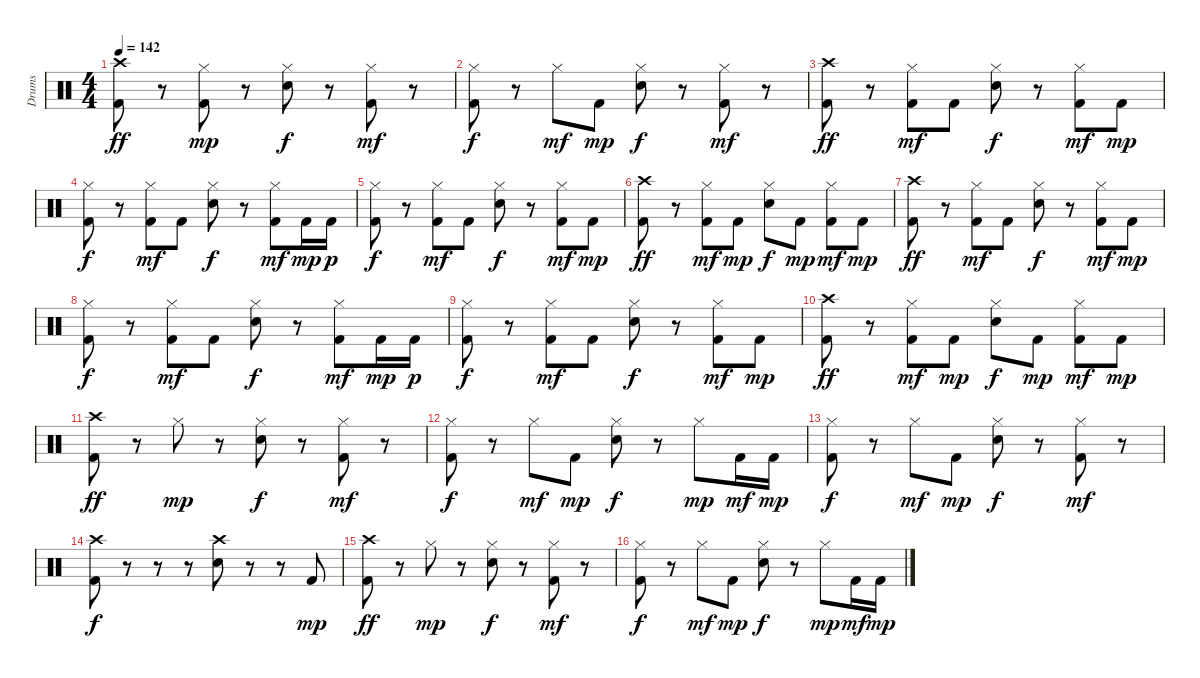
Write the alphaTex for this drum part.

\track ("Drums" "Drums") {instrument percussion}
\staff {score}
\articulation defaults
\ts (4 4)
\tempo 142
\clef neutral
\ks c
("Crash high (hit)" "Kick (hit) 2").8{dy ff} r.8 ("Hi-Hat (closed)" "Kick (hit) 2").8{dy mp} r.8 ("Hi-Hat (closed)" "Snare (hit) 2").8{dy f} r.8 ("Hi-Hat (closed)" "Kick (hit) 2").8{dy mf} r.8 |
("Hi-Hat (closed)" "Kick (hit) 2").8{dy f} r.8 "Hi-Hat (closed)".8{dy mf} "Kick (hit) 2".8{dy mp} ("Hi-Hat (closed)" "Snare (hit) 2").8{dy f} r.8 ("Hi-Hat (closed)" "Kick (hit) 2").8{dy mf} r.8 |
("Crash high (hit)" "Kick (hit) 2").8{dy ff} r.8 ("Hi-Hat (closed)" "Kick (hit) 2").8{dy mf} "Kick (hit) 2".8 ("Hi-Hat (closed)" "Snare (hit) 2").8{dy f} r.8 ("Hi-Hat (closed)" "Kick (hit) 2").8{dy mf} "Kick (hit) 2".8{dy mp} |
("Hi-Hat (closed)" "Kick (hit) 2").8{dy f} r.8 ("Hi-Hat (closed)" "Kick (hit) 2").8{dy mf} "Kick (hit) 2".8 ("Hi-Hat (closed)" "Snare (hit) 2").8{dy f} r.8 ("Hi-Hat (closed)" "Kick (hit) 2").8{dy mf} "Kick (hit) 2".16{dy mp} "Kick (hit) 2".16{dy p} |
("Hi-Hat (closed)" "Kick (hit) 2").8{dy f} r.8 ("Hi-Hat (closed)" "Kick (hit) 2").8{dy mf} "Kick (hit) 2".8 ("Hi-Hat (closed)" "Snare (hit) 2").8{dy f} r.8 ("Hi-Hat (closed)" "Kick (hit) 2").8{dy mf} "Kick (hit) 2".8{dy mp} |
("Crash high (hit)" "Kick (hit) 2").8{dy ff} r.8 ("Hi-Hat (closed)" "Kick (hit) 2").8{dy mf} "Kick (hit) 2".8{dy mp} ("Hi-Hat (closed)" "Snare (hit) 2").8{dy f} "Kick (hit) 2".8{dy mp} ("Hi-Hat (closed)" "Kick (hit) 2").8{dy mf} "Kick (hit) 2".8{dy mp} |
("Crash high (hit)" "Kick (hit) 2").8{dy ff} r.8 ("Hi-Hat (closed)" "Kick (hit) 2").8{dy mf} "Kick (hit) 2".8 ("Hi-Hat (closed)" "Snare (hit) 2").8{dy f} r.8 ("Hi-Hat (closed)" "Kick (hit) 2").8{dy mf} "Kick (hit) 2".8{dy mp} |
("Hi-Hat (closed)" "Kick (hit) 2").8{dy f} r.8 ("Hi-Hat (closed)" "Kick (hit) 2").8{dy mf} "Kick (hit) 2".8 ("Hi-Hat (closed)" "Snare (hit) 2").8{dy f} r.8 ("Hi-Hat (closed)" "Kick (hit) 2").8{dy mf} "Kick (hit) 2".16{dy mp} "Kick (hit) 2".16{dy p} |
("Hi-Hat (closed)" "Kick (hit) 2").8{dy f} r.8 ("Hi-Hat (closed)" "Kick (hit) 2").8{dy mf} "Kick (hit) 2".8 ("Hi-Hat (closed)" "Snare (hit) 2").8{dy f} r.8 ("Hi-Hat (closed)" "Kick (hit) 2").8{dy mf} "Kick (hit) 2".8{dy mp} |
("Crash high (hit)" "Kick (hit) 2").8{dy ff} r.8 ("Hi-Hat (closed)" "Kick (hit) 2").8{dy mf} "Kick (hit) 2".8{dy mp} ("Hi-Hat (closed)" "Snare (hit) 2").8{dy f} "Kick (hit) 2".8{dy mp} ("Hi-Hat (closed)" "Kick (hit) 2").8{dy mf} "Kick (hit) 2".8{dy mp} |
("Crash high (hit)" "Kick (hit) 2").8{dy ff} r.8 "Hi-Hat (closed)".8{dy mp} r.8 ("Hi-Hat (closed)" "Snare (hit) 2").8{dy f} r.8 ("Hi-Hat (closed)" "Kick (hit) 2").8{dy mf} r.8 |
("Hi-Hat (closed)" "Kick (hit) 2").8{dy f} r.8 "Hi-Hat (closed)".8{dy mf} "Kick (hit) 2".8{dy mp} ("Hi-Hat (closed)" "Snare (hit) 2").8{dy f} r.8 "Hi-Hat (closed)".8{dy mp} "Kick (hit) 2".16{dy mf} "Kick (hit) 2".16{dy mp} |
("Hi-Hat (closed)" "Kick (hit) 2").8{dy f} r.8 "Hi-Hat (closed)".8{dy mf} "Kick (hit) 2".8{dy mp} ("Hi-Hat (closed)" "Snare (hit) 2").8{dy f} r.8 ("Hi-Hat (closed)" "Kick (hit) 2").8{dy mf} r.8 |
("Crash high (hit)" "Kick (hit) 2").8{dy f} r.8 r.8 r.8 ("Crash high (hit)" "Snare (hit) 2").8 r.8 r.8 "Kick (hit) 2".8{dy mp} |
("Crash high (hit)" "Kick (hit) 2").8{dy ff} r.8 "Hi-Hat (closed)".8{dy mp} r.8 ("Hi-Hat (closed)" "Snare (hit) 2").8{dy f} r.8 ("Hi-Hat (closed)" "Kick (hit) 2").8{dy mf} r.8 |
("Hi-Hat (closed)" "Kick (hit) 2").8{dy f} r.8 "Hi-Hat (closed)".8{dy mf} "Kick (hit) 2".8{dy mp} ("Hi-Hat (closed)" "Snare (hit) 2").8{dy f} r.8 "Hi-Hat (closed)".8{dy mp} "Kick (hit) 2".16{dy mf} "Kick (hit) 2".16{dy mp}
